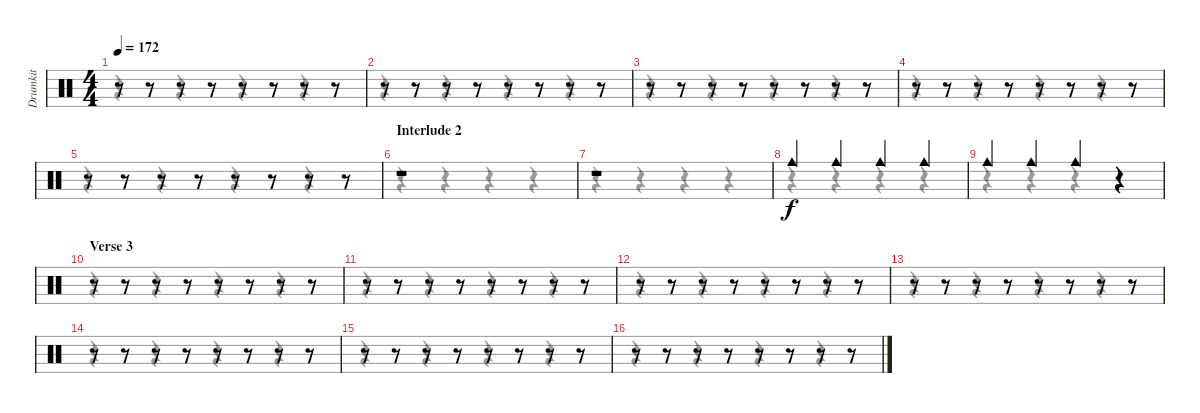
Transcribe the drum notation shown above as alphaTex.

\track ("Drumkit" "Drumkit") {instrument percussion}
\staff {score}
\articulation defaults
\voice
\ts (4 4)
\tempo 172
\clef neutral
\ks c
r.8{dy f} r.8 r.8 r.8 r.8 r.8 r.8 r.8 |
r.8 r.8 r.8 r.8 r.8 r.8 r.8 r.8 |
r.8 r.8 r.8 r.8 r.8 r.8 r.8 r.8 |
r.8 r.8 r.8 r.8 r.8 r.8 r.8 r.8 |
r.8 r.8 r.8 r.8 r.8 r.8 r.8 r.8 |
\section ("" "Interlude 2")
r.1 |
r.1 |
"Cowbell medium (hit)".4 "Cowbell medium (hit)".4 "Cowbell medium (hit)".4 "Cowbell medium (hit)".4 |
"Cowbell medium (hit)".4 "Cowbell medium (hit)".4 "Cowbell medium (hit)".4 r.4 |
\section ("" "Verse 3")
r.8 r.8 r.8 r.8 r.8 r.8 r.8 r.8 |
r.8 r.8 r.8 r.8 r.8 r.8 r.8 r.8 |
r.8 r.8 r.8 r.8 r.8 r.8 r.8 r.8 |
r.8 r.8 r.8 r.8 r.8 r.8 r.8 r.8 |
r.8 r.8 r.8 r.8 r.8 r.8 r.8 r.8 |
r.8 r.8 r.8 r.8 r.8 r.8 r.8 r.8 |
r.8 r.8 r.8 r.8 r.8 r.8 r.8 r.8
\voice
\clef neutral
\ottava regular
\simile none
\ks c
r.4{dy f} r.4 r.4 r.4 |
r.4 r.4 r.4 r.4 |
r.4 r.4 r.4 r.4 |
r.4 r.4 r.4 r.4 |
r.4 r.4 r.4 r.4 |
r.4 r.4 r.4 r.4 |
r.4 r.4 r.4 r.4 |
r.4 r.4 r.4 r.4 |
r.4 r.4 r.4 r.4 |
r.4 r.4 r.4 r.4 |
r.4 r.4 r.4 r.4 |
r.4 r.4 r.4 r.4 |
r.4 r.4 r.4 r.4 |
r.4 r.4 r.4 r.4 |
r.4 r.4 r.4 r.4 |
r.4 r.4 r.4 r.4
